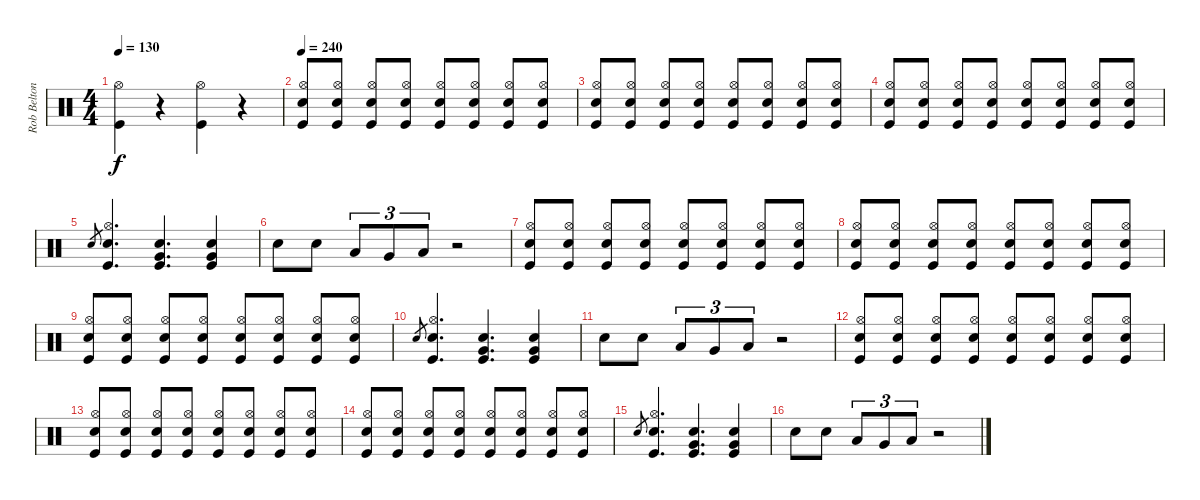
\track ("Rob Belton" "Rob Belton") {instrument percussion}
\staff {score}
\articulation defaults
\ts (4 4)
\tempo 130
\clef neutral
\ks c
("Kick (hit)" "Hi-Hat (open)").4{dy f} r.4 ("Kick (hit)" "Hi-Hat (open)").4 r.4 |
\tempo 240
("Kick (hit)" "Snare (hit) 2" "Hi-Hat (open)").8 ("Kick (hit)" "Snare (hit) 2" "Hi-Hat (open)").8 ("Kick (hit)" "Snare (hit) 2" "Hi-Hat (open)").8 ("Kick (hit)" "Snare (hit) 2" "Hi-Hat (open)").8 ("Kick (hit)" "Snare (hit) 2" "Hi-Hat (open)").8 ("Kick (hit)" "Snare (hit) 2" "Hi-Hat (open)").8 ("Kick (hit)" "Snare (hit) 2" "Hi-Hat (open)").8 ("Kick (hit)" "Snare (hit) 2" "Hi-Hat (open)").8 |
("Kick (hit)" "Snare (hit) 2" "Hi-Hat (open)").8 ("Kick (hit)" "Snare (hit) 2" "Hi-Hat (open)").8 ("Kick (hit)" "Snare (hit) 2" "Hi-Hat (open)").8 ("Kick (hit)" "Snare (hit) 2" "Hi-Hat (open)").8 ("Kick (hit)" "Snare (hit) 2" "Hi-Hat (open)").8 ("Kick (hit)" "Snare (hit) 2" "Hi-Hat (open)").8 ("Kick (hit)" "Snare (hit) 2" "Hi-Hat (open)").8 ("Kick (hit)" "Snare (hit) 2" "Hi-Hat (open)").8 |
("Kick (hit)" "Snare (hit) 2" "Hi-Hat (open)").8 ("Kick (hit)" "Snare (hit) 2" "Hi-Hat (open)").8 ("Kick (hit)" "Snare (hit) 2" "Hi-Hat (open)").8 ("Kick (hit)" "Snare (hit) 2" "Hi-Hat (open)").8 ("Kick (hit)" "Snare (hit) 2" "Hi-Hat (open)").8 ("Kick (hit)" "Snare (hit) 2" "Hi-Hat (open)").8 ("Kick (hit)" "Snare (hit) 2" "Hi-Hat (open)").8 ("Kick (hit)" "Snare (hit) 2" "Hi-Hat (open)").8 |
"Snare (hit)".8{gr} ("Kick (hit)" "Snare (hit) 2" "Hi-Hat (open)").4{d} ("Kick (hit)" "Very Low Tom (hit)" "Snare (hit) 2").4{d} ("Kick (hit)" "Very Low Tom (hit)" "Snare (hit) 2").4 |
"Snare (hit) 2".8 "Snare (hit) 2".8 "Low Tom (hit)".8{tu (3 2)} "Very Low Tom (hit)".8{tu (3 2)} "Low Floor Tom (hit)".8{tu (3 2)} r.2 |
("Kick (hit)" "Snare (hit) 2" "Hi-Hat (open)").8 ("Kick (hit)" "Snare (hit) 2" "Hi-Hat (open)").8 ("Kick (hit)" "Snare (hit) 2" "Hi-Hat (open)").8 ("Kick (hit)" "Snare (hit) 2" "Hi-Hat (open)").8 ("Kick (hit)" "Snare (hit) 2" "Hi-Hat (open)").8 ("Kick (hit)" "Snare (hit) 2" "Hi-Hat (open)").8 ("Kick (hit)" "Snare (hit) 2" "Hi-Hat (open)").8 ("Kick (hit)" "Snare (hit) 2" "Hi-Hat (open)").8 |
("Kick (hit)" "Snare (hit) 2" "Hi-Hat (open)").8 ("Kick (hit)" "Snare (hit) 2" "Hi-Hat (open)").8 ("Kick (hit)" "Snare (hit) 2" "Hi-Hat (open)").8 ("Kick (hit)" "Snare (hit) 2" "Hi-Hat (open)").8 ("Kick (hit)" "Snare (hit) 2" "Hi-Hat (open)").8 ("Kick (hit)" "Snare (hit) 2" "Hi-Hat (open)").8 ("Kick (hit)" "Snare (hit) 2" "Hi-Hat (open)").8 ("Kick (hit)" "Snare (hit) 2" "Hi-Hat (open)").8 |
("Kick (hit)" "Snare (hit) 2" "Hi-Hat (open)").8 ("Kick (hit)" "Snare (hit) 2" "Hi-Hat (open)").8 ("Kick (hit)" "Snare (hit) 2" "Hi-Hat (open)").8 ("Kick (hit)" "Snare (hit) 2" "Hi-Hat (open)").8 ("Kick (hit)" "Snare (hit) 2" "Hi-Hat (open)").8 ("Kick (hit)" "Snare (hit) 2" "Hi-Hat (open)").8 ("Kick (hit)" "Snare (hit) 2" "Hi-Hat (open)").8 ("Kick (hit)" "Snare (hit) 2" "Hi-Hat (open)").8 |
"Snare (hit)".8{gr} ("Kick (hit)" "Snare (hit) 2" "Hi-Hat (open)").4{d} ("Kick (hit)" "Very Low Tom (hit)" "Snare (hit) 2").4{d} ("Kick (hit)" "Very Low Tom (hit)" "Snare (hit) 2").4 |
"Snare (hit) 2".8 "Snare (hit) 2".8 "Low Tom (hit)".8{tu (3 2)} "Very Low Tom (hit)".8{tu (3 2)} "Low Floor Tom (hit)".8{tu (3 2)} r.2 |
("Kick (hit)" "Snare (hit) 2" "Hi-Hat (open)").8 ("Kick (hit)" "Snare (hit) 2" "Hi-Hat (open)").8 ("Kick (hit)" "Snare (hit) 2" "Hi-Hat (open)").8 ("Kick (hit)" "Snare (hit) 2" "Hi-Hat (open)").8 ("Kick (hit)" "Snare (hit) 2" "Hi-Hat (open)").8 ("Kick (hit)" "Snare (hit) 2" "Hi-Hat (open)").8 ("Kick (hit)" "Snare (hit) 2" "Hi-Hat (open)").8 ("Kick (hit)" "Snare (hit) 2" "Hi-Hat (open)").8 |
("Kick (hit)" "Snare (hit) 2" "Hi-Hat (open)").8 ("Kick (hit)" "Snare (hit) 2" "Hi-Hat (open)").8 ("Kick (hit)" "Snare (hit) 2" "Hi-Hat (open)").8 ("Kick (hit)" "Snare (hit) 2" "Hi-Hat (open)").8 ("Kick (hit)" "Snare (hit) 2" "Hi-Hat (open)").8 ("Kick (hit)" "Snare (hit) 2" "Hi-Hat (open)").8 ("Kick (hit)" "Snare (hit) 2" "Hi-Hat (open)").8 ("Kick (hit)" "Snare (hit) 2" "Hi-Hat (open)").8 |
("Kick (hit)" "Snare (hit) 2" "Hi-Hat (open)").8 ("Kick (hit)" "Snare (hit) 2" "Hi-Hat (open)").8 ("Kick (hit)" "Snare (hit) 2" "Hi-Hat (open)").8 ("Kick (hit)" "Snare (hit) 2" "Hi-Hat (open)").8 ("Kick (hit)" "Snare (hit) 2" "Hi-Hat (open)").8 ("Kick (hit)" "Snare (hit) 2" "Hi-Hat (open)").8 ("Kick (hit)" "Snare (hit) 2" "Hi-Hat (open)").8 ("Kick (hit)" "Snare (hit) 2" "Hi-Hat (open)").8 |
"Snare (hit)".8{gr} ("Kick (hit)" "Snare (hit) 2" "Hi-Hat (open)").4{d} ("Kick (hit)" "Very Low Tom (hit)" "Snare (hit) 2").4{d} ("Kick (hit)" "Very Low Tom (hit)" "Snare (hit) 2").4 |
"Snare (hit) 2".8 "Snare (hit) 2".8 "Low Tom (hit)".8{tu (3 2)} "Very Low Tom (hit)".8{tu (3 2)} "Low Floor Tom (hit)".8{tu (3 2)} r.2
